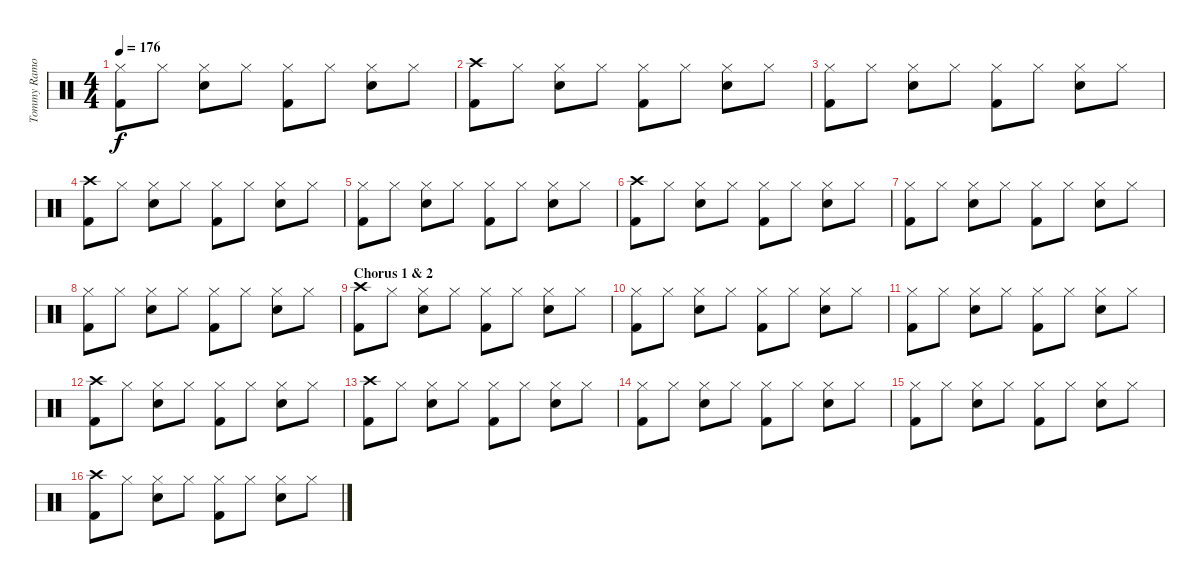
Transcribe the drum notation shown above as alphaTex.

\track ("Tommy Ramone" "Tommy Ramo") {instrument percussion}
\staff {score}
\articulation defaults
\ts (4 4)
\tempo 176
\clef neutral
\ks c
("Hi-Hat (closed)" "Kick (hit) 2").8{dy f} "Hi-Hat (closed)".8 ("Hi-Hat (closed)" "Snare (hit) 2").8 "Hi-Hat (closed)".8 ("Hi-Hat (closed)" "Kick (hit) 2").8 "Hi-Hat (closed)".8 ("Hi-Hat (closed)" "Snare (hit) 2").8 "Hi-Hat (closed)".8 |
("Crash high (hit)" "Kick (hit) 2").8 "Hi-Hat (closed)".8 ("Hi-Hat (closed)" "Snare (hit) 2").8 "Hi-Hat (closed)".8 ("Hi-Hat (closed)" "Kick (hit) 2").8 "Hi-Hat (closed)".8 ("Hi-Hat (closed)" "Snare (hit) 2").8 "Hi-Hat (closed)".8 |
("Hi-Hat (closed)" "Kick (hit) 2").8 "Hi-Hat (closed)".8 ("Hi-Hat (closed)" "Snare (hit) 2").8 "Hi-Hat (closed)".8 ("Hi-Hat (closed)" "Kick (hit) 2").8 "Hi-Hat (closed)".8 ("Hi-Hat (closed)" "Snare (hit) 2").8 "Hi-Hat (closed)".8 |
("Crash high (hit)" "Kick (hit) 2").8 "Hi-Hat (closed)".8 ("Hi-Hat (closed)" "Snare (hit) 2").8 "Hi-Hat (closed)".8 ("Hi-Hat (closed)" "Kick (hit) 2").8 "Hi-Hat (closed)".8 ("Hi-Hat (closed)" "Snare (hit) 2").8 "Hi-Hat (closed)".8 |
("Hi-Hat (closed)" "Kick (hit) 2").8 "Hi-Hat (closed)".8 ("Hi-Hat (closed)" "Snare (hit) 2").8 "Hi-Hat (closed)".8 ("Hi-Hat (closed)" "Kick (hit) 2").8 "Hi-Hat (closed)".8 ("Hi-Hat (closed)" "Snare (hit) 2").8 "Hi-Hat (closed)".8 |
("Crash high (hit)" "Kick (hit) 2").8 "Hi-Hat (closed)".8 ("Hi-Hat (closed)" "Snare (hit) 2").8 "Hi-Hat (closed)".8 ("Hi-Hat (closed)" "Kick (hit) 2").8 "Hi-Hat (closed)".8 ("Hi-Hat (closed)" "Snare (hit) 2").8 "Hi-Hat (closed)".8 |
("Hi-Hat (closed)" "Kick (hit) 2").8 "Hi-Hat (closed)".8 ("Hi-Hat (closed)" "Snare (hit) 2").8 "Hi-Hat (closed)".8 ("Hi-Hat (closed)" "Kick (hit) 2").8 "Hi-Hat (closed)".8 ("Hi-Hat (closed)" "Snare (hit) 2").8 "Hi-Hat (closed)".8 |
("Hi-Hat (closed)" "Kick (hit) 2").8 "Hi-Hat (closed)".8 ("Hi-Hat (closed)" "Snare (hit) 2").8 "Hi-Hat (closed)".8 ("Hi-Hat (closed)" "Kick (hit) 2").8 "Hi-Hat (closed)".8 ("Hi-Hat (closed)" "Snare (hit) 2").8 "Hi-Hat (closed)".8 |
\section ("" "Chorus 1 & 2")
("Crash high (hit)" "Kick (hit) 2").8 "Hi-Hat (closed)".8 ("Hi-Hat (closed)" "Snare (hit) 2").8 "Hi-Hat (closed)".8 ("Hi-Hat (closed)" "Kick (hit) 2").8 "Hi-Hat (closed)".8 ("Hi-Hat (closed)" "Snare (hit) 2").8 "Hi-Hat (closed)".8 |
("Hi-Hat (closed)" "Kick (hit) 2").8 "Hi-Hat (closed)".8 ("Hi-Hat (closed)" "Snare (hit) 2").8 "Hi-Hat (closed)".8 ("Hi-Hat (closed)" "Kick (hit) 2").8 "Hi-Hat (closed)".8 ("Hi-Hat (closed)" "Snare (hit) 2").8 "Hi-Hat (closed)".8 |
("Hi-Hat (closed)" "Kick (hit) 2").8 "Hi-Hat (closed)".8 ("Hi-Hat (closed)" "Snare (hit) 2").8 "Hi-Hat (closed)".8 ("Hi-Hat (closed)" "Kick (hit) 2").8 "Hi-Hat (closed)".8 ("Hi-Hat (closed)" "Snare (hit) 2").8 "Hi-Hat (closed)".8 |
("Crash high (hit)" "Kick (hit) 2").8 "Hi-Hat (closed)".8 ("Hi-Hat (closed)" "Snare (hit) 2").8 "Hi-Hat (closed)".8 ("Hi-Hat (closed)" "Kick (hit) 2").8 "Hi-Hat (closed)".8 ("Hi-Hat (closed)" "Snare (hit) 2").8 "Hi-Hat (closed)".8 |
("Crash high (hit)" "Kick (hit) 2").8 "Hi-Hat (closed)".8 ("Hi-Hat (closed)" "Snare (hit) 2").8 "Hi-Hat (closed)".8 ("Hi-Hat (closed)" "Kick (hit) 2").8 "Hi-Hat (closed)".8 ("Hi-Hat (closed)" "Snare (hit) 2").8 "Hi-Hat (closed)".8 |
("Hi-Hat (closed)" "Kick (hit) 2").8 "Hi-Hat (closed)".8 ("Hi-Hat (closed)" "Snare (hit) 2").8 "Hi-Hat (closed)".8 ("Hi-Hat (closed)" "Kick (hit) 2").8 "Hi-Hat (closed)".8 ("Hi-Hat (closed)" "Snare (hit) 2").8 "Hi-Hat (closed)".8 |
("Hi-Hat (closed)" "Kick (hit) 2").8 "Hi-Hat (closed)".8 ("Hi-Hat (closed)" "Snare (hit) 2").8 "Hi-Hat (closed)".8 ("Hi-Hat (closed)" "Kick (hit) 2").8 "Hi-Hat (closed)".8 ("Hi-Hat (closed)" "Snare (hit) 2").8 "Hi-Hat (closed)".8 |
("Crash high (hit)" "Kick (hit) 2").8 "Hi-Hat (closed)".8 ("Hi-Hat (closed)" "Snare (hit) 2").8 "Hi-Hat (closed)".8 ("Hi-Hat (closed)" "Kick (hit) 2").8 "Hi-Hat (closed)".8 ("Hi-Hat (closed)" "Snare (hit) 2").8 "Hi-Hat (closed)".8
